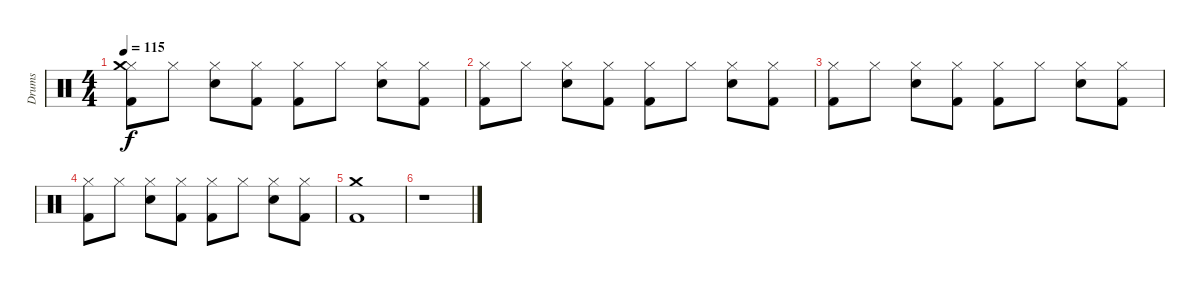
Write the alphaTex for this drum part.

\track ("Drums" "Drums") {instrument percussion}
\staff {score}
\articulation defaults
\ts (4 4)
\tempo 115
\clef neutral
\ks c
("Hi-Hat (closed)" "Crash medium (hit)" "Kick (hit) 2").8{dy f} "Hi-Hat (closed)".8 ("Hi-Hat (closed)" "Snare (hit) 2").8 ("Hi-Hat (closed)" "Kick (hit) 2").8 ("Hi-Hat (closed)" "Kick (hit) 2").8 "Hi-Hat (closed)".8 ("Hi-Hat (closed)" "Snare (hit) 2").8 ("Hi-Hat (closed)" "Kick (hit) 2").8 |
("Hi-Hat (closed)" "Kick (hit) 2").8 "Hi-Hat (closed)".8 ("Hi-Hat (closed)" "Snare (hit) 2").8 ("Hi-Hat (closed)" "Kick (hit) 2").8 ("Hi-Hat (closed)" "Kick (hit) 2").8 "Hi-Hat (closed)".8 ("Hi-Hat (closed)" "Snare (hit) 2").8 ("Hi-Hat (closed)" "Kick (hit) 2").8 |
("Hi-Hat (closed)" "Kick (hit) 2").8 "Hi-Hat (closed)".8 ("Hi-Hat (closed)" "Snare (hit) 2").8 ("Hi-Hat (closed)" "Kick (hit) 2").8 ("Hi-Hat (closed)" "Kick (hit) 2").8 "Hi-Hat (closed)".8 ("Hi-Hat (closed)" "Snare (hit) 2").8 ("Hi-Hat (closed)" "Kick (hit) 2").8 |
("Hi-Hat (closed)" "Kick (hit) 2").8 "Hi-Hat (closed)".8 ("Hi-Hat (closed)" "Snare (hit) 2").8 ("Hi-Hat (closed)" "Kick (hit) 2").8 ("Hi-Hat (closed)" "Kick (hit) 2").8 "Hi-Hat (closed)".8 ("Hi-Hat (closed)" "Snare (hit) 2").8 ("Hi-Hat (closed)" "Kick (hit) 2").8 |
("Crash medium (hit)" "Kick (hit) 2").1 |
r.1
